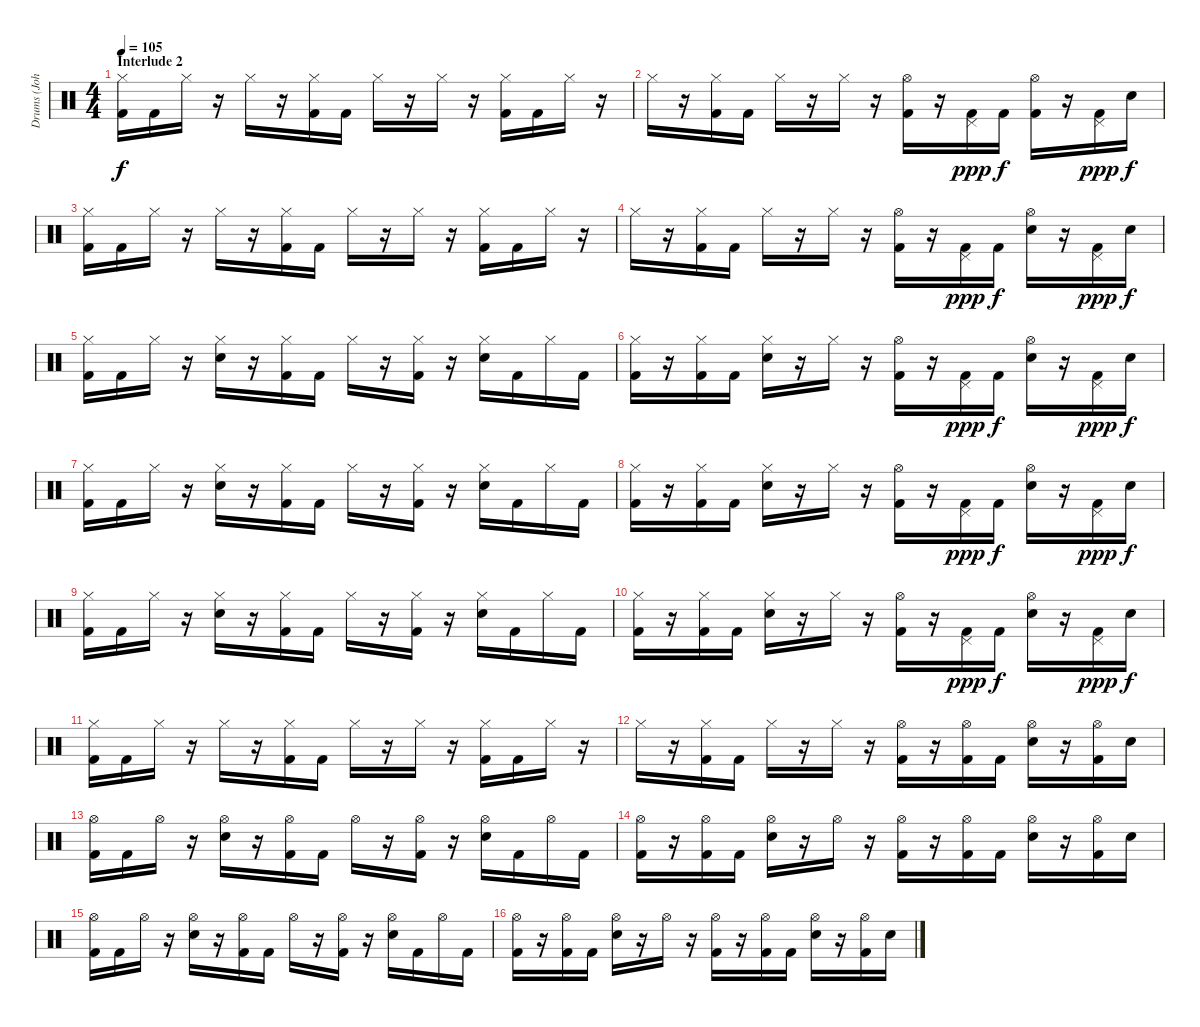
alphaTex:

\track ("Drums (John Otto)" "Drums (Joh") {instrument percussion}
\staff {score}
\articulation defaults
\ts (4 4)
\section ("" "Interlude 2")
\tempo 105
\clef neutral
\ks c
("Hi-Hat (closed)" "Kick (hit) 2").16{dy f} "Kick (hit) 2".16 "Hi-Hat (closed)".16 r.16 "Hi-Hat (closed)".16 r.16 ("Hi-Hat (closed)" "Kick (hit) 2").16 "Kick (hit) 2".16 "Hi-Hat (closed)".16 r.16 "Hi-Hat (closed)".16 r.16 ("Hi-Hat (closed)" "Kick (hit) 2").16 "Kick (hit) 2".16 "Hi-Hat (closed)".16 r.16 |
"Hi-Hat (closed)".16 r.16 ("Hi-Hat (closed)" "Kick (hit) 2").16 "Kick (hit) 2".16 "Hi-Hat (closed)".16 r.16 "Hi-Hat (closed)".16 r.16 ("Hi-Hat (open)" "Kick (hit) 2").16 r.16 ("Pedal Hi-Hat (hit)" "Kick (hit) 2").16{dy ppp} "Kick (hit) 2".16{dy f} ("Hi-Hat (open)" "Kick (hit) 2").16 r.16 ("Pedal Hi-Hat (hit)" "Kick (hit) 2").16{dy ppp} "Electric Snare (hit)".16{dy f} |
("Hi-Hat (closed)" "Kick (hit) 2").16 "Kick (hit) 2".16 "Hi-Hat (closed)".16 r.16 "Hi-Hat (closed)".16 r.16 ("Hi-Hat (closed)" "Kick (hit) 2").16 "Kick (hit) 2".16 "Hi-Hat (closed)".16 r.16 "Hi-Hat (closed)".16 r.16 ("Hi-Hat (closed)" "Kick (hit) 2").16 "Kick (hit) 2".16 "Hi-Hat (closed)".16 r.16 |
"Hi-Hat (closed)".16 r.16 ("Hi-Hat (closed)" "Kick (hit) 2").16 "Kick (hit) 2".16 "Hi-Hat (closed)".16 r.16 "Hi-Hat (closed)".16 r.16 ("Hi-Hat (open)" "Kick (hit) 2").16 r.16 ("Pedal Hi-Hat (hit)" "Kick (hit) 2").16{dy ppp} "Kick (hit) 2".16{dy f} ("Hi-Hat (open)" "Electric Snare (hit)").16 r.16 ("Pedal Hi-Hat (hit)" "Kick (hit) 2").16{dy ppp} "Electric Snare (hit)".16{dy f} |
("Hi-Hat (closed)" "Kick (hit) 2").16 "Kick (hit) 2".16 "Hi-Hat (closed)".16 r.16 ("Hi-Hat (closed)" "Electric Snare (hit)").16 r.16 ("Hi-Hat (closed)" "Kick (hit) 2").16 "Kick (hit) 2".16 "Hi-Hat (closed)".16 r.16 ("Hi-Hat (closed)" "Kick (hit) 2").16 r.16 ("Hi-Hat (closed)" "Electric Snare (hit)").16 "Kick (hit) 2".16 "Hi-Hat (closed)".16 "Kick (hit) 2".16 |
("Hi-Hat (closed)" "Kick (hit) 2").16 r.16 ("Hi-Hat (closed)" "Kick (hit) 2").16 "Kick (hit) 2".16 ("Hi-Hat (closed)" "Electric Snare (hit)").16 r.16 "Hi-Hat (closed)".16 r.16 ("Hi-Hat (open)" "Kick (hit) 2").16 r.16 ("Pedal Hi-Hat (hit)" "Kick (hit) 2").16{dy ppp} "Kick (hit) 2".16{dy f} ("Hi-Hat (open)" "Electric Snare (hit)").16 r.16 ("Pedal Hi-Hat (hit)" "Kick (hit) 2").16{dy ppp} "Electric Snare (hit)".16{dy f} |
("Hi-Hat (closed)" "Kick (hit) 2").16 "Kick (hit) 2".16 "Hi-Hat (closed)".16 r.16 ("Hi-Hat (closed)" "Electric Snare (hit)").16 r.16 ("Hi-Hat (closed)" "Kick (hit) 2").16 "Kick (hit) 2".16 "Hi-Hat (closed)".16 r.16 ("Hi-Hat (closed)" "Kick (hit) 2").16 r.16 ("Hi-Hat (closed)" "Electric Snare (hit)").16 "Kick (hit) 2".16 "Hi-Hat (closed)".16 "Kick (hit) 2".16 |
("Hi-Hat (closed)" "Kick (hit) 2").16 r.16 ("Hi-Hat (closed)" "Kick (hit) 2").16 "Kick (hit) 2".16 ("Hi-Hat (closed)" "Electric Snare (hit)").16 r.16 "Hi-Hat (closed)".16 r.16 ("Hi-Hat (open)" "Kick (hit) 2").16 r.16 ("Pedal Hi-Hat (hit)" "Kick (hit) 2").16{dy ppp} "Kick (hit) 2".16{dy f} ("Hi-Hat (open)" "Electric Snare (hit)").16 r.16 ("Pedal Hi-Hat (hit)" "Kick (hit) 2").16{dy ppp} "Electric Snare (hit)".16{dy f} |
("Hi-Hat (closed)" "Kick (hit) 2").16 "Kick (hit) 2".16 "Hi-Hat (closed)".16 r.16 ("Hi-Hat (closed)" "Electric Snare (hit)").16 r.16 ("Hi-Hat (closed)" "Kick (hit) 2").16 "Kick (hit) 2".16 "Hi-Hat (closed)".16 r.16 ("Hi-Hat (closed)" "Kick (hit) 2").16 r.16 ("Hi-Hat (closed)" "Electric Snare (hit)").16 "Kick (hit) 2".16 "Hi-Hat (closed)".16 "Kick (hit) 2".16 |
("Hi-Hat (closed)" "Kick (hit) 2").16 r.16 ("Hi-Hat (closed)" "Kick (hit) 2").16 "Kick (hit) 2".16 ("Hi-Hat (closed)" "Electric Snare (hit)").16 r.16 "Hi-Hat (closed)".16 r.16 ("Hi-Hat (open)" "Kick (hit) 2").16 r.16 ("Pedal Hi-Hat (hit)" "Kick (hit) 2").16{dy ppp} "Kick (hit) 2".16{dy f} ("Hi-Hat (open)" "Electric Snare (hit)").16 r.16 ("Pedal Hi-Hat (hit)" "Kick (hit) 2").16{dy ppp} "Electric Snare (hit)".16{dy f} |
("Hi-Hat (closed)" "Kick (hit) 2").16 "Kick (hit) 2".16 "Hi-Hat (closed)".16 r.16 "Hi-Hat (closed)".16 r.16 ("Hi-Hat (closed)" "Kick (hit) 2").16 "Kick (hit) 2".16 "Hi-Hat (closed)".16 r.16 "Hi-Hat (closed)".16 r.16 ("Hi-Hat (closed)" "Kick (hit) 2").16 "Kick (hit) 2".16 "Hi-Hat (closed)".16 r.16 |
"Hi-Hat (closed)".16 r.16 ("Hi-Hat (closed)" "Kick (hit) 2").16 "Kick (hit) 2".16 "Hi-Hat (closed)".16 r.16 "Hi-Hat (closed)".16 r.16 ("Hi-Hat (open)" "Kick (hit) 2").16 r.16 ("Hi-Hat (open)" "Kick (hit) 2").16 "Kick (hit) 2".16 ("Hi-Hat (open)" "Electric Snare (hit)").16 r.16 ("Hi-Hat (open)" "Kick (hit) 2").16 "Electric Snare (hit)".16 |
("Hi-Hat (open)" "Kick (hit) 2").16 "Kick (hit) 2".16 "Hi-Hat (open)".16 r.16 ("Hi-Hat (open)" "Electric Snare (hit)").16 r.16 ("Hi-Hat (open)" "Kick (hit) 2").16 "Kick (hit) 2".16 "Hi-Hat (open)".16 r.16 ("Hi-Hat (open)" "Kick (hit) 2").16 r.16 ("Hi-Hat (open)" "Electric Snare (hit)").16 "Kick (hit) 2".16 "Hi-Hat (open)".16 "Kick (hit) 2".16 |
("Hi-Hat (open)" "Kick (hit) 2").16 r.16 ("Hi-Hat (open)" "Kick (hit) 2").16 "Kick (hit) 2".16 ("Hi-Hat (open)" "Electric Snare (hit)").16 r.16 "Hi-Hat (open)".16 r.16 ("Hi-Hat (open)" "Kick (hit) 2").16 r.16 ("Hi-Hat (open)" "Kick (hit) 2").16 "Kick (hit) 2".16 ("Hi-Hat (open)" "Electric Snare (hit)").16 r.16 ("Hi-Hat (open)" "Kick (hit) 2").16 "Electric Snare (hit)".16 |
("Hi-Hat (open)" "Kick (hit) 2").16 "Kick (hit) 2".16 "Hi-Hat (open)".16 r.16 ("Hi-Hat (open)" "Electric Snare (hit)").16 r.16 ("Hi-Hat (open)" "Kick (hit) 2").16 "Kick (hit) 2".16 "Hi-Hat (open)".16 r.16 ("Hi-Hat (open)" "Kick (hit) 2").16 r.16 ("Hi-Hat (open)" "Electric Snare (hit)").16 "Kick (hit) 2".16 "Hi-Hat (open)".16 "Kick (hit) 2".16 |
("Hi-Hat (open)" "Kick (hit) 2").16 r.16 ("Hi-Hat (open)" "Kick (hit) 2").16 "Kick (hit) 2".16 ("Hi-Hat (open)" "Electric Snare (hit)").16 r.16 "Hi-Hat (open)".16 r.16 ("Hi-Hat (open)" "Kick (hit) 2").16 r.16 ("Hi-Hat (open)" "Kick (hit) 2").16 "Kick (hit) 2".16 ("Hi-Hat (open)" "Electric Snare (hit)").16 r.16 ("Hi-Hat (open)" "Kick (hit) 2").16 "Electric Snare (hit)".16
